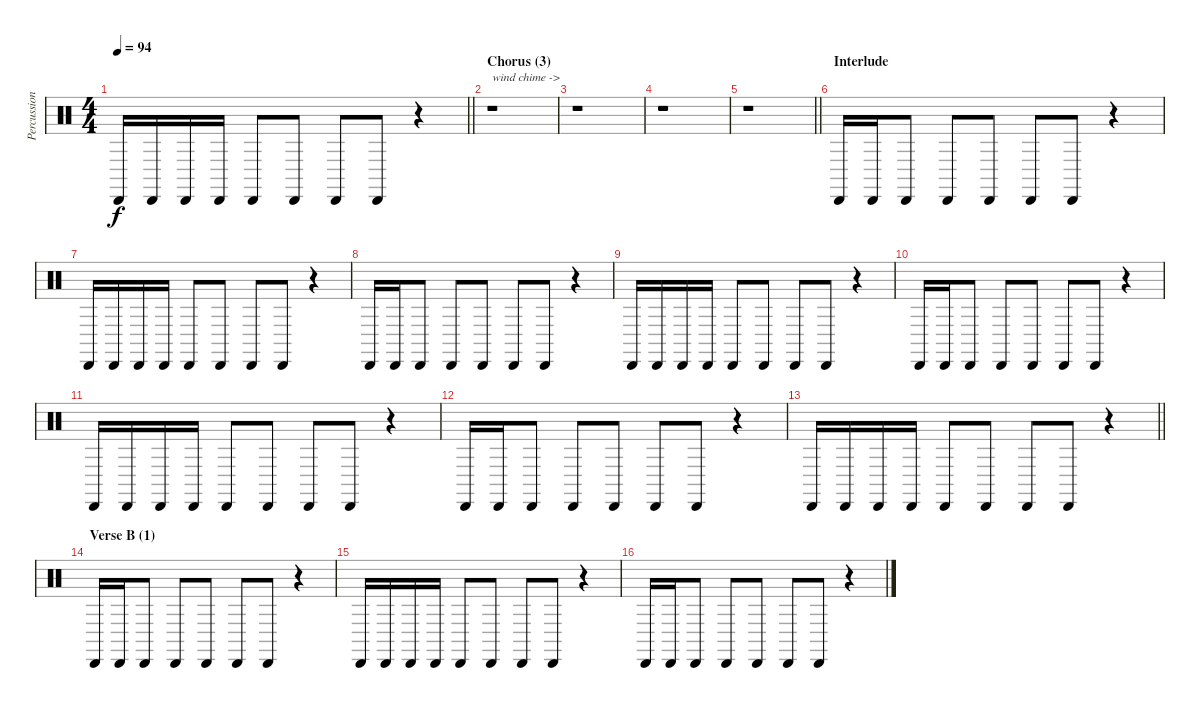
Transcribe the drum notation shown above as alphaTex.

\track ("Percussion" "Percussion") {instrument percussion}
\staff {score}
\articulation defaults
\ts (4 4)
\tempo 94
\clef neutral
\barLineRight lightlight
\ks aminor "Cabasa (hit)".16{dy f} "Cabasa (hit)".16 "Cabasa (hit)".16 "Cabasa (hit)".16 "Cabasa (hit)".8 "Cabasa (hit)".8 "Cabasa (hit)".8 "Cabasa (hit)".8
r.4 |
\section ("" "Chorus (3)")
r.1{txt "wind chime ->"} |
r.1 |
r.1 |
\barLineRight lightlight
r.1 |
\section ("" "Interlude")
"Cabasa (hit)".16 "Cabasa (hit)".16 "Cabasa (hit)".8 "Cabasa (hit)".8 "Cabasa (hit)".8 "Cabasa (hit)".8 "Cabasa (hit)".8 r.4 |
"Cabasa (hit)".16 "Cabasa (hit)".16 "Cabasa (hit)".16 "Cabasa (hit)".16 "Cabasa (hit)".8 "Cabasa (hit)".8 "Cabasa (hit)".8 "Cabasa (hit)".8 r.4 |
"Cabasa (hit)".16 "Cabasa (hit)".16 "Cabasa (hit)".8 "Cabasa (hit)".8 "Cabasa (hit)".8 "Cabasa (hit)".8 "Cabasa (hit)".8 r.4 |
"Cabasa (hit)".16 "Cabasa (hit)".16 "Cabasa (hit)".16 "Cabasa (hit)".16 "Cabasa (hit)".8 "Cabasa (hit)".8 "Cabasa (hit)".8 "Cabasa (hit)".8 r.4 |
"Cabasa (hit)".16 "Cabasa (hit)".16 "Cabasa (hit)".8 "Cabasa (hit)".8 "Cabasa (hit)".8 "Cabasa (hit)".8 "Cabasa (hit)".8 r.4 |
"Cabasa (hit)".16 "Cabasa (hit)".16 "Cabasa (hit)".16 "Cabasa (hit)".16 "Cabasa (hit)".8 "Cabasa (hit)".8 "Cabasa (hit)".8 "Cabasa (hit)".8 r.4 |
"Cabasa (hit)".16 "Cabasa (hit)".16 "Cabasa (hit)".8 "Cabasa (hit)".8 "Cabasa (hit)".8 "Cabasa (hit)".8 "Cabasa (hit)".8 r.4 |
\barLineRight lightlight "Cabasa (hit)".16 "Cabasa (hit)".16 "Cabasa (hit)".16 "Cabasa (hit)".16 "Cabasa (hit)".8 "Cabasa (hit)".8 "Cabasa (hit)".8 "Cabasa (hit)".8
r.4 |
\section ("" "Verse B (1)")
"Cabasa (hit)".16 "Cabasa (hit)".16 "Cabasa (hit)".8 "Cabasa (hit)".8 "Cabasa (hit)".8 "Cabasa (hit)".8 "Cabasa (hit)".8 r.4 |
"Cabasa (hit)".16 "Cabasa (hit)".16 "Cabasa (hit)".16 "Cabasa (hit)".16 "Cabasa (hit)".8 "Cabasa (hit)".8 "Cabasa (hit)".8 "Cabasa (hit)".8 r.4 |
"Cabasa (hit)".16 "Cabasa (hit)".16 "Cabasa (hit)".8 "Cabasa (hit)".8 "Cabasa (hit)".8 "Cabasa (hit)".8 "Cabasa (hit)".8 r.4
